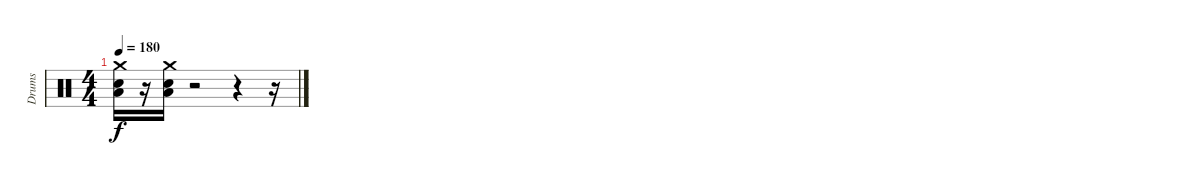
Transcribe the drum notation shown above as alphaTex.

\track ("Drums" "Drums") {instrument percussion}
\staff {score}
\articulation defaults
\ts (4 4)
\tempo 180
\clef neutral
\ks c
("Crash medium (hit)" "Snare (hit) 2" "Low Floor Tom (hit)").16{dy f} r.16 ("Snare (hit) 2" "Low Floor Tom (hit)" "Crash medium (hit)").16 r.2 r.4 r.16
